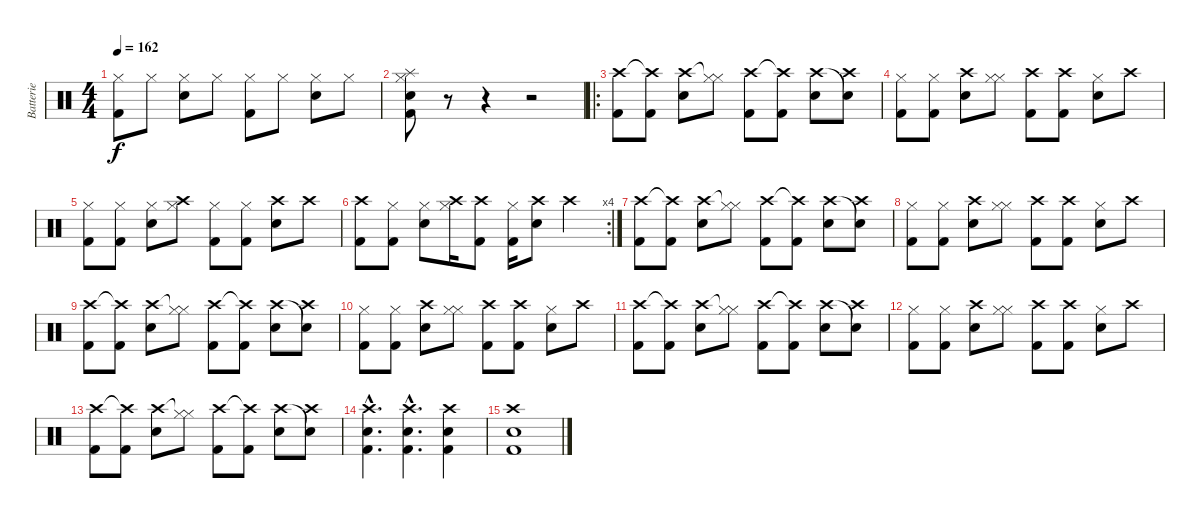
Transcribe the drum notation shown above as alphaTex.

\track ("Batterie" "Batterie") {instrument percussion}
\staff {score}
\articulation defaults
\ts (4 4)
\tempo 162
\clef neutral
\ks c
("Kick (hit) 2" "Hi-Hat (closed)").8{dy f} "Hi-Hat (closed)".8 ("Snare (hit) 2" "Hi-Hat (closed)").8 "Hi-Hat (closed)".8 ("Kick (hit) 2" "Hi-Hat (closed)").8 "Hi-Hat (closed)".8 ("Snare (hit) 2" "Hi-Hat (closed)").8 "Hi-Hat (closed)".8 |
("Kick (hit) 2" "Snare (hit) 2" "Splash (hit)" "Hi-Hat (closed)").8 r.8 r.4 r.2 |
\ro
("Kick (hit) 2" "Crash high (hit)").8 ("Kick (hit) 2" "Crash high (hit)"{t}).8 ("Snare (hit) 2" "Crash high (hit)").8 ("Hi-Hat (closed)" "Hi-Hat (closed)"{t}).8 ("Kick (hit) 2" "Crash high (hit)").8 ("Kick (hit) 2" "Crash high (hit)"{t}).8 ("Snare (hit) 2" "Crash high (hit)").8 ("Crash high (hit)" "Snare (hit)"{t}).8 |
("Kick (hit) 2" "Hi-Hat (closed)").8 ("Kick (hit) 2" "Hi-Hat (closed)").8 ("Snare (hit) 2" "Crash high (hit)").8 ("Hi-Hat (closed)" "Hi-Hat (closed)").8 ("Kick (hit) 2" "Crash high (hit)").8 ("Kick (hit) 2" "Crash high (hit)").8 ("Snare (hit) 2" "Hi-Hat (closed)").8 "Crash high (hit)".8 |
("Kick (hit) 2" "Hi-Hat (closed)").8 ("Kick (hit) 2" "Hi-Hat (closed)").8 ("Snare (hit) 2" "Hi-Hat (closed)").8 ("Hi-Hat (closed)" "Crash high (hit)").8 ("Kick (hit) 2" "Hi-Hat (closed)").8 ("Kick (hit) 2" "Hi-Hat (closed)").8 ("Snare (hit) 2" "Crash high (hit)").8 "Crash high (hit)".8 |
\rc 4
("Kick (hit) 2" "Crash high (hit)").8 ("Kick (hit) 2" "Hi-Hat (closed)").8 ("Snare (hit) 2" "Hi-Hat (closed)").8 ("Hi-Hat (closed)" "Crash high (hit)").16 ("Kick (hit) 2" "Crash high (hit)").8 ("Kick (hit) 2" "Hi-Hat (closed)").16 ("Snare (hit) 2" "Crash high (hit)").8 "Crash high (hit)".4 |
("Kick (hit) 2" "Crash high (hit)").8 ("Kick (hit) 2" "Crash high (hit)"{t}).8 ("Snare (hit) 2" "Crash high (hit)").8 ("Hi-Hat (closed)" "Hi-Hat (closed)"{t}).8 ("Kick (hit) 2" "Crash high (hit)").8 ("Kick (hit) 2" "Crash high (hit)"{t}).8 ("Snare (hit) 2" "Crash high (hit)").8 ("Crash high (hit)" "Snare (hit)"{t}).8 |
("Kick (hit) 2" "Hi-Hat (closed)").8 ("Kick (hit) 2" "Hi-Hat (closed)").8 ("Snare (hit) 2" "Crash high (hit)").8 ("Hi-Hat (closed)" "Hi-Hat (closed)").8 ("Kick (hit) 2" "Crash high (hit)").8 ("Kick (hit) 2" "Crash high (hit)").8 ("Snare (hit) 2" "Hi-Hat (closed)").8 "Crash high (hit)".8 |
("Kick (hit) 2" "Crash high (hit)").8 ("Kick (hit) 2" "Crash high (hit)"{t}).8 ("Snare (hit) 2" "Crash high (hit)").8 ("Hi-Hat (closed)" "Hi-Hat (closed)"{t}).8 ("Kick (hit) 2" "Crash high (hit)").8 ("Kick (hit) 2" "Crash high (hit)"{t}).8 ("Snare (hit) 2" "Crash high (hit)").8 ("Crash high (hit)" "Snare (hit)"{t}).8 |
("Kick (hit) 2" "Hi-Hat (closed)").8 ("Kick (hit) 2" "Hi-Hat (closed)").8 ("Snare (hit) 2" "Crash high (hit)").8 ("Hi-Hat (closed)" "Hi-Hat (closed)").8 ("Kick (hit) 2" "Crash high (hit)").8 ("Kick (hit) 2" "Crash high (hit)").8 ("Snare (hit) 2" "Hi-Hat (closed)").8 "Crash high (hit)".8 |
("Kick (hit) 2" "Crash high (hit)").8 ("Kick (hit) 2" "Crash high (hit)"{t}).8 ("Snare (hit) 2" "Crash high (hit)").8 ("Hi-Hat (closed)" "Hi-Hat (closed)"{t}).8 ("Kick (hit) 2" "Crash high (hit)").8 ("Kick (hit) 2" "Crash high (hit)"{t}).8 ("Snare (hit) 2" "Crash high (hit)").8 ("Crash high (hit)" "Snare (hit)"{t}).8 |
("Kick (hit) 2" "Hi-Hat (closed)").8 ("Kick (hit) 2" "Hi-Hat (closed)").8 ("Snare (hit) 2" "Crash high (hit)").8 ("Hi-Hat (closed)" "Hi-Hat (closed)").8 ("Kick (hit) 2" "Crash high (hit)").8 ("Kick (hit) 2" "Crash high (hit)").8 ("Snare (hit) 2" "Hi-Hat (closed)").8 "Crash high (hit)".8 |
("Kick (hit) 2" "Crash high (hit)").8 ("Kick (hit) 2" "Crash high (hit)"{t}).8 ("Snare (hit) 2" "Crash high (hit)").8 ("Hi-Hat (closed)" "Hi-Hat (closed)"{t}).8 ("Kick (hit) 2" "Crash high (hit)").8 ("Kick (hit) 2" "Crash high (hit)"{t}).8 ("Snare (hit) 2" "Crash high (hit)").8 ("Crash high (hit)" "Snare (hit)"{t}).8 |
("Kick (hit) 2"{hac} "Snare (hit) 2"{hac} "Crash high (hit)"{hac}).4{d} ("Kick (hit) 2"{hac} "Snare (hit) 2"{hac} "Crash high (hit)"{hac}).4{d} ("Kick (hit) 2" "Snare (hit) 2" "Crash high (hit)").4 |
("Crash high (hit)" "Kick (hit) 2" "Snare (hit) 2").1
